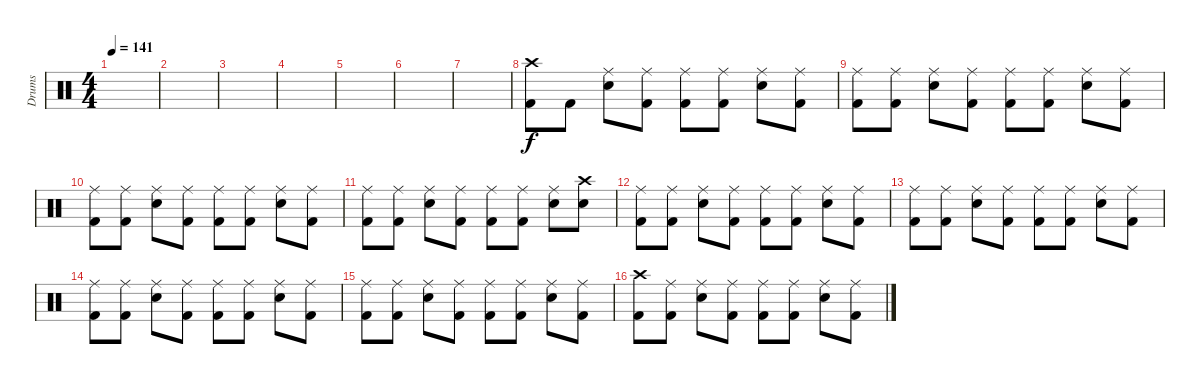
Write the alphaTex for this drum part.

\track ("Drums" "Drums") {instrument percussion}
\staff {score}
\articulation defaults
\ts (4 4)
\tempo 141
\clef neutral
\ks c
|
|
|
|
|
|
|
("Crash high (hit)" "Kick (hit) 2").8 "Kick (hit) 2".8 ("Ride (middle)" "Electric Snare (hit)").8 ("Ride (middle)" "Kick (hit) 2").8 ("Ride (middle)" "Kick (hit) 2").8 ("Ride (middle)" "Kick (hit) 2").8 ("Ride (middle)" "Electric Snare (hit)").8 ("Ride (middle)" "Kick (hit) 2").8 |
("Ride (middle)" "Kick (hit) 2").8 ("Ride (middle)" "Kick (hit) 2").8 ("Ride (middle)" "Electric Snare (hit)").8 ("Ride (middle)" "Kick (hit) 2").8 ("Ride (middle)" "Kick (hit) 2").8 ("Ride (middle)" "Kick (hit) 2").8 ("Ride (middle)" "Electric Snare (hit)").8 ("Ride (middle)" "Kick (hit) 2").8 |
("Ride (middle)" "Kick (hit) 2").8 ("Ride (middle)" "Kick (hit) 2").8 ("Ride (middle)" "Electric Snare (hit)").8 ("Ride (middle)" "Kick (hit) 2").8 ("Ride (middle)" "Kick (hit) 2").8 ("Ride (middle)" "Kick (hit) 2").8 ("Ride (middle)" "Electric Snare (hit)").8 ("Ride (middle)" "Kick (hit) 2").8 |
("Ride (middle)" "Kick (hit) 2").8 ("Ride (middle)" "Kick (hit) 2").8 ("Ride (middle)" "Electric Snare (hit)").8 ("Ride (middle)" "Kick (hit) 2").8 ("Ride (middle)" "Kick (hit) 2").8 ("Ride (middle)" "Kick (hit) 2").8 ("Ride (middle)" "Electric Snare (hit)").8 ("Crash high (hit)" "Electric Snare (hit)").8 |
("Ride (middle)" "Kick (hit) 2").8 ("Ride (middle)" "Kick (hit) 2").8 ("Ride (middle)" "Electric Snare (hit)").8 ("Ride (middle)" "Kick (hit) 2").8 ("Ride (middle)" "Kick (hit) 2").8 ("Ride (middle)" "Kick (hit) 2").8 ("Ride (middle)" "Electric Snare (hit)").8 ("Ride (middle)" "Kick (hit) 2").8 |
("Ride (middle)" "Kick (hit) 2").8 ("Ride (middle)" "Kick (hit) 2").8 ("Ride (middle)" "Electric Snare (hit)").8 ("Ride (middle)" "Kick (hit) 2").8 ("Ride (middle)" "Kick (hit) 2").8 ("Ride (middle)" "Kick (hit) 2").8 ("Ride (middle)" "Electric Snare (hit)").8 ("Ride (middle)" "Kick (hit) 2").8 |
("Ride (middle)" "Kick (hit) 2").8 ("Ride (middle)" "Kick (hit) 2").8 ("Ride (middle)" "Electric Snare (hit)").8 ("Ride (middle)" "Kick (hit) 2").8 ("Ride (middle)" "Kick (hit) 2").8 ("Ride (middle)" "Kick (hit) 2").8 ("Ride (middle)" "Electric Snare (hit)").8 ("Ride (middle)" "Kick (hit) 2").8 |
("Ride (middle)" "Kick (hit) 2").8 ("Ride (middle)" "Kick (hit) 2").8 ("Ride (middle)" "Electric Snare (hit)").8 ("Ride (middle)" "Kick (hit) 2").8 ("Ride (middle)" "Kick (hit) 2").8 ("Ride (middle)" "Kick (hit) 2").8 ("Ride (middle)" "Electric Snare (hit)").8 ("Ride (middle)" "Kick (hit) 2").8 |
("Crash high (hit)" "Kick (hit) 2").8 ("Ride (middle)" "Kick (hit) 2").8 ("Ride (middle)" "Electric Snare (hit)").8 ("Ride (middle)" "Kick (hit) 2").8 ("Ride (middle)" "Kick (hit) 2").8 ("Ride (middle)" "Kick (hit) 2").8 ("Ride (middle)" "Electric Snare (hit)").8 ("Ride (middle)" "Kick (hit) 2").8
